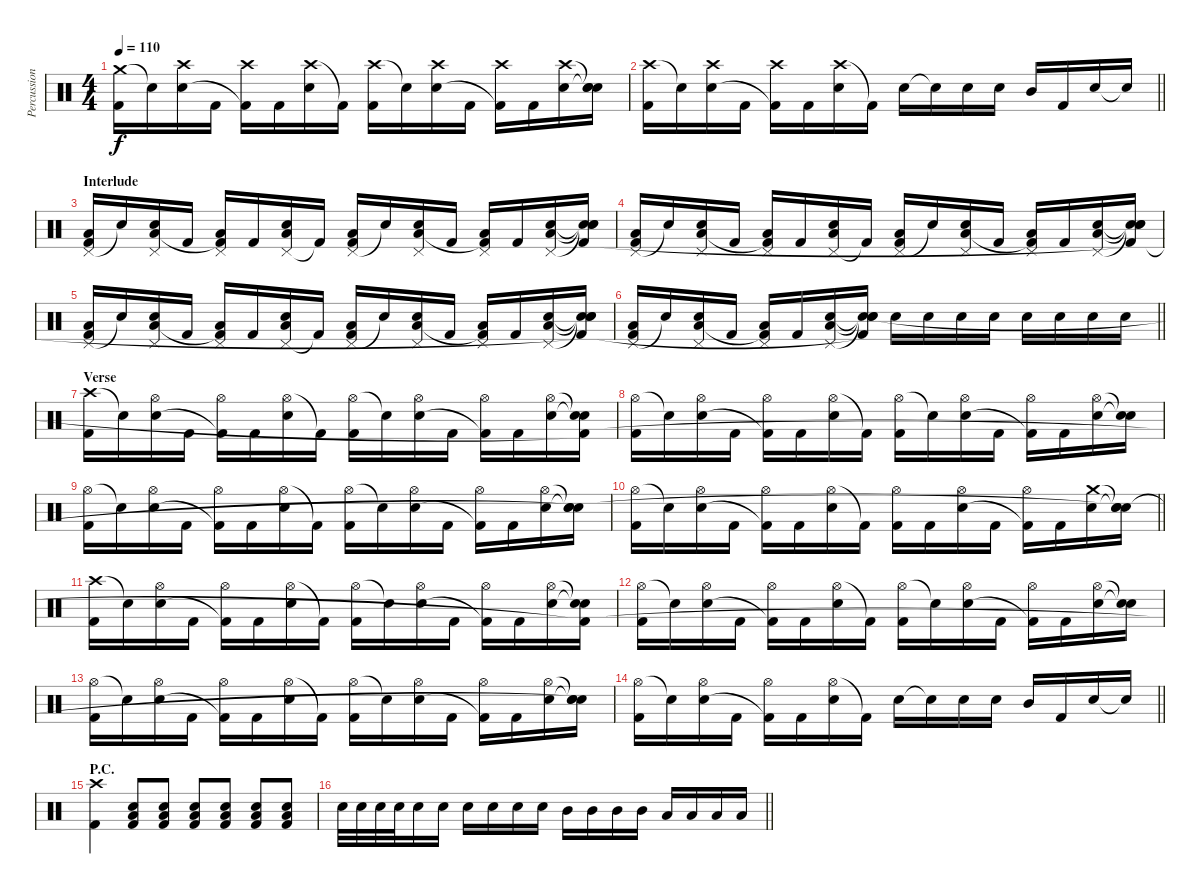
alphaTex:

\track ("Percussion" "Percussion") {instrument percussion}
\staff {score}
\articulation defaults
\ts (4 4)
\tempo 110
\clef neutral
\ks c
("Crash medium (hit)" "Kick (hit) 2").16{dy f} "Snare (hit)"{t}.16 ("Crash high (hit)" "Electric Snare (hit)").16 "Kick (hit) 2".16 ("Crash high (hit)" "Kick (hit) 2"{t}).16 "Kick (hit) 2".16 ("Crash high (hit)" "Electric Snare (hit)").16 "Kick (hit) 2"{t}.16 ("Crash high (hit)" "Kick (hit) 2").16 "Snare (hit)"{t}.16 ("Crash high (hit)" "Electric Snare (hit)").16 "Kick (hit) 2".16 ("Crash high (hit)" "Kick (hit) 2"{t}).16 "Kick (hit) 2".16 ("Crash high (hit)" "Electric Snare (hit)").16 ("Snare (hit)"{t} "Snare (hit)"{t} "Snare (hit)"{t}).16 |
\barLineRight lightlight
("Crash high (hit)" "Kick (hit) 2").16 "Snare (hit)"{t}.16 ("Crash high (hit)" "Electric Snare (hit)").16 "Kick (hit) 2".16 ("Crash high (hit)" "Kick (hit) 2"{t}).16 "Kick (hit) 2".16 ("Crash high (hit)" "Electric Snare (hit)").16 "Kick (hit) 2"{t}.16 "Electric Snare (hit)".16 "Snare (hit)"{t}.16 "Electric Snare (hit)".16 "Electric Snare (hit)".16 "Mid Tom (hit)".16 "Kick (hit) 2".16 "Electric Snare (hit)".16 "Snare (hit)"{t}.16 |
\section ("" "Interlude")
("Pedal Hi-Hat (hit)" "Low Tom (hit)" "Kick (hit) 2").16 "Snare (hit)"{t}.16 ("Pedal Hi-Hat (hit)" "Electric Snare (hit)" "Low Tom (hit)").16 "Kick (hit) 2".16 ("Pedal Hi-Hat (hit)" "Low Tom (hit)" "Kick (hit) 2"{t}).16 "Kick (hit) 2".16 ("Pedal Hi-Hat (hit)" "Electric Snare (hit)" "Low Tom (hit)").16 "Kick (hit) 2"{t}.16 ("Pedal Hi-Hat (hit)" "Low Tom (hit)" "Kick (hit) 2").16 "Snare (hit)"{t}.16 ("Pedal Hi-Hat (hit)" "Electric Snare (hit)" "Low Tom (hit)").16 "Kick (hit) 2".16 ("Pedal Hi-Hat (hit)" "Low Tom (hit)" "Kick (hit) 2"{t}).16 "Kick (hit) 2".16 ("Pedal Hi-Hat (hit)" "Electric Snare (hit)" "Low Tom (hit)").16 ("Snare (hit)"{t} "Snare (hit)"{t} "Snare (hit)"{t} "Kick (hit) 2").16 |
("Pedal Hi-Hat (hit)" "Low Tom (hit)" "Kick (hit) 2").16 "Snare (hit)"{t}.16 ("Pedal Hi-Hat (hit)" "Electric Snare (hit)" "Low Tom (hit)").16 "Kick (hit) 2".16 ("Pedal Hi-Hat (hit)" "Low Tom (hit)" "Kick (hit) 2"{t}).16 "Kick (hit) 2".16 ("Pedal Hi-Hat (hit)" "Electric Snare (hit)" "Low Tom (hit)").16 "Kick (hit) 2"{t}.16 ("Pedal Hi-Hat (hit)" "Low Tom (hit)" "Kick (hit) 2").16 "Snare (hit)"{t}.16 ("Pedal Hi-Hat (hit)" "Electric Snare (hit)" "Low Tom (hit)").16 "Kick (hit) 2".16 ("Pedal Hi-Hat (hit)" "Low Tom (hit)" "Kick (hit) 2"{t}).16 "Kick (hit) 2".16 ("Pedal Hi-Hat (hit)" "Electric Snare (hit)" "Low Tom (hit)").16 ("Snare (hit)"{t} "Snare (hit)"{t} "Snare (hit)"{t} "Kick (hit) 2"{t}).16 |
("Pedal Hi-Hat (hit)" "Low Tom (hit)" "Kick (hit) 2").16 "Snare (hit)"{t}.16 ("Pedal Hi-Hat (hit)" "Electric Snare (hit)" "Low Tom (hit)").16 "Kick (hit) 2".16 ("Pedal Hi-Hat (hit)" "Low Tom (hit)" "Kick (hit) 2"{t}).16 "Kick (hit) 2".16 ("Pedal Hi-Hat (hit)" "Electric Snare (hit)" "Low Tom (hit)").16 "Kick (hit) 2"{t}.16 ("Pedal Hi-Hat (hit)" "Low Tom (hit)" "Kick (hit) 2").16 "Snare (hit)"{t}.16 ("Pedal Hi-Hat (hit)" "Electric Snare (hit)" "Low Tom (hit)").16 "Kick (hit) 2".16 ("Pedal Hi-Hat (hit)" "Low Tom (hit)" "Kick (hit) 2"{t}).16 "Kick (hit) 2".16 ("Pedal Hi-Hat (hit)" "Electric Snare (hit)" "Low Tom (hit)").16 ("Snare (hit)"{t} "Snare (hit)"{t} "Snare (hit)"{t} "Kick (hit) 2"{t}).16 |
\barLineRight lightlight
("Pedal Hi-Hat (hit)" "Low Tom (hit)" "Kick (hit) 2").16 "Snare (hit)"{t}.16 ("Pedal Hi-Hat (hit)" "Electric Snare (hit)" "Low Tom (hit)").16 "Kick (hit) 2".16 ("Pedal Hi-Hat (hit)" "Low Tom (hit)" "Kick (hit) 2"{t}).16 "Kick (hit) 2".16 ("Pedal Hi-Hat (hit)" "Electric Snare (hit)" "Low Tom (hit)").16 ("Snare (hit)"{t} "Snare (hit)"{t} "Snare (hit)"{t} "Kick (hit) 2"{t}).16 "Electric Snare (hit)".16 "Electric Snare (hit)".16 "Electric Snare (hit)".16 "Electric Snare (hit)".16 "Electric Snare (hit)".16 "Electric Snare (hit)".16 "Electric Snare (hit)".16 "Electric Snare (hit)".16 |
\section ("" "Verse")
("Crash high (hit)" "Kick (hit) 2").16 "Snare (hit)"{t}.16 ("Hi-Hat (open)" "Electric Snare (hit)").16 "Kick (hit) 2".16 ("Hi-Hat (open)" "Kick (hit) 2"{t}).16 "Kick (hit) 2".16 ("Hi-Hat (open)" "Electric Snare (hit)").16 "Kick (hit) 2"{t}.16 ("Hi-Hat (open)" "Kick (hit) 2").16 "Snare (hit)"{t}.16 ("Hi-Hat (open)" "Electric Snare (hit)").16 "Kick (hit) 2".16 ("Hi-Hat (open)" "Kick (hit) 2"{t}).16 "Kick (hit) 2".16 ("Hi-Hat (open)" "Electric Snare (hit)").16 ("Snare (hit)"{t} "Snare (hit)"{t} "Kick (hit) 2"{t}).16 |
("Hi-Hat (open)" "Kick (hit) 2").16 "Snare (hit)"{t}.16 ("Hi-Hat (open)" "Electric Snare (hit)").16 "Kick (hit) 2".16 ("Hi-Hat (open)" "Kick (hit) 2"{t}).16 "Kick (hit) 2".16 ("Hi-Hat (open)" "Electric Snare (hit)").16 "Kick (hit) 2"{t}.16 ("Hi-Hat (open)" "Kick (hit) 2").16 "Snare (hit)"{t}.16 ("Hi-Hat (open)" "Electric Snare (hit)").16 "Kick (hit) 2".16 ("Hi-Hat (open)" "Kick (hit) 2"{t}).16 "Kick (hit) 2".16 ("Hi-Hat (open)" "Electric Snare (hit)").16 ("Snare (hit)"{t} "Snare (hit)"{t}).16 |
("Hi-Hat (open)" "Kick (hit) 2").16 "Snare (hit)"{t}.16 ("Hi-Hat (open)" "Electric Snare (hit)").16 "Kick (hit) 2".16 ("Hi-Hat (open)" "Kick (hit) 2"{t}).16 "Kick (hit) 2".16 ("Hi-Hat (open)" "Electric Snare (hit)").16 "Kick (hit) 2"{t}.16 ("Hi-Hat (open)" "Kick (hit) 2").16 "Snare (hit)"{t}.16 ("Hi-Hat (open)" "Electric Snare (hit)").16 "Kick (hit) 2".16 ("Hi-Hat (open)" "Kick (hit) 2"{t}).16 "Kick (hit) 2".16 ("Hi-Hat (open)" "Electric Snare (hit)").16 ("Snare (hit)"{t} "Snare (hit)"{t} "Snare (hit)"{t}).16 |
\barLineRight lightlight
("Hi-Hat (open)" "Kick (hit) 2").16 "Snare (hit)"{t}.16 ("Hi-Hat (open)" "Electric Snare (hit)").16 "Kick (hit) 2".16 ("Hi-Hat (open)" "Kick (hit) 2"{t}).16 "Kick (hit) 2".16 ("Hi-Hat (open)" "Electric Snare (hit)").16 "Kick (hit) 2"{t}.16 ("Hi-Hat (open)" "Kick (hit) 2").16 "Kick (hit) 2".16 ("Hi-Hat (open)" "Electric Snare (hit)").16 "Kick (hit) 2".16 ("Hi-Hat (open)" "Kick (hit) 2"{t}).16 "Kick (hit) 2".16 ("Crash medium (hit)" "Electric Snare (hit)").16 ("Snare (hit)"{t} "Snare (hit)"{t} "Snare (hit)"{t}).16 |
("Crash high (hit)" "Kick (hit) 2").16 "Snare (hit)"{t}.16 ("Hi-Hat (open)" "Electric Snare (hit)").16 "Kick (hit) 2".16 ("Hi-Hat (open)" "Kick (hit) 2"{t}).16 "Kick (hit) 2".16 ("Hi-Hat (open)" "Electric Snare (hit)").16 "Kick (hit) 2"{t}.16 ("Hi-Hat (open)" "Kick (hit) 2").16 "Snare (hit)"{t}.16 ("Hi-Hat (open)" "Electric Snare (hit)").16 "Kick (hit) 2".16 ("Hi-Hat (open)" "Kick (hit) 2"{t}).16 "Kick (hit) 2".16 ("Hi-Hat (open)" "Electric Snare (hit)").16 ("Snare (hit)"{t} "Snare (hit)"{t} "Kick (hit) 2"{t}).16 |
("Hi-Hat (open)" "Kick (hit) 2").16 "Snare (hit)"{t}.16 ("Hi-Hat (open)" "Electric Snare (hit)").16 "Kick (hit) 2".16 ("Hi-Hat (open)" "Kick (hit) 2"{t}).16 "Kick (hit) 2".16 ("Hi-Hat (open)" "Electric Snare (hit)").16 "Kick (hit) 2"{t}.16 ("Hi-Hat (open)" "Kick (hit) 2").16 "Snare (hit)"{t}.16 ("Hi-Hat (open)" "Electric Snare (hit)").16 "Kick (hit) 2".16 ("Hi-Hat (open)" "Kick (hit) 2"{t}).16 "Kick (hit) 2".16 ("Hi-Hat (open)" "Electric Snare (hit)").16 ("Snare (hit)"{t} "Snare (hit)"{t}).16 |
("Hi-Hat (open)" "Kick (hit) 2").16 "Snare (hit)"{t}.16 ("Hi-Hat (open)" "Electric Snare (hit)").16 "Kick (hit) 2".16 ("Hi-Hat (open)" "Kick (hit) 2"{t}).16 "Kick (hit) 2".16 ("Hi-Hat (open)" "Electric Snare (hit)").16 "Kick (hit) 2"{t}.16 ("Hi-Hat (open)" "Kick (hit) 2").16 "Snare (hit)"{t}.16 ("Hi-Hat (open)" "Electric Snare (hit)").16 "Kick (hit) 2".16 ("Hi-Hat (open)" "Kick (hit) 2"{t}).16 "Kick (hit) 2".16 ("Hi-Hat (open)" "Electric Snare (hit)").16 ("Snare (hit)"{t} "Snare (hit)"{t} "Snare (hit)"{t}).16 |
\barLineRight lightlight
("Hi-Hat (open)" "Kick (hit) 2").16 "Snare (hit)"{t}.16 ("Hi-Hat (open)" "Electric Snare (hit)").16 "Kick (hit) 2".16 ("Hi-Hat (open)" "Kick (hit) 2"{t}).16 "Kick (hit) 2".16 ("Hi-Hat (open)" "Electric Snare (hit)").16 "Kick (hit) 2"{t}.16 "Electric Snare (hit)".16 "Snare (hit)"{t}.16 "Electric Snare (hit)".16 "Electric Snare (hit)".16 "Mid Tom (hit)".16 "Kick (hit) 2".16 "Electric Snare (hit)".16 "Snare (hit)"{t}.16 |
\section ("" "P.C.")
("Crash high (hit)" "Kick (hit) 2").4 ("Electric Snare (hit)" "Low Tom (hit)" "Kick (hit) 2").8 ("Electric Snare (hit)" "Low Tom (hit)" "Kick (hit) 2").8 ("Electric Snare (hit)" "Low Tom (hit)" "Kick (hit) 2").8 ("Electric Snare (hit)" "Low Tom (hit)" "Kick (hit) 2").8 ("Electric Snare (hit)" "Low Tom (hit)" "Kick (hit) 2").8 ("Electric Snare (hit)" "Low Tom (hit)" "Kick (hit) 2").8 |
\barLineRight lightlight "Electric Snare (hit)".32 "Electric Snare (hit)".32 "Electric Snare (hit)".32 "Electric Snare (hit)".32 "Electric Snare (hit)".16 "Electric Snare (hit)".16 "Electric Snare (hit)".16 "Electric Snare (hit)".16 "Electric Snare (hit)".16 "Electric Snare (hit)".16 "Mid Tom (hit)".16 "Mid Tom (hit)".16 "Mid Tom (hit)".16 "Mid Tom (hit)".16 "Low Tom (hit)".16 "Low Tom (hit)".16 "Low Tom (hit)".16 "Low Tom (hit)".16
